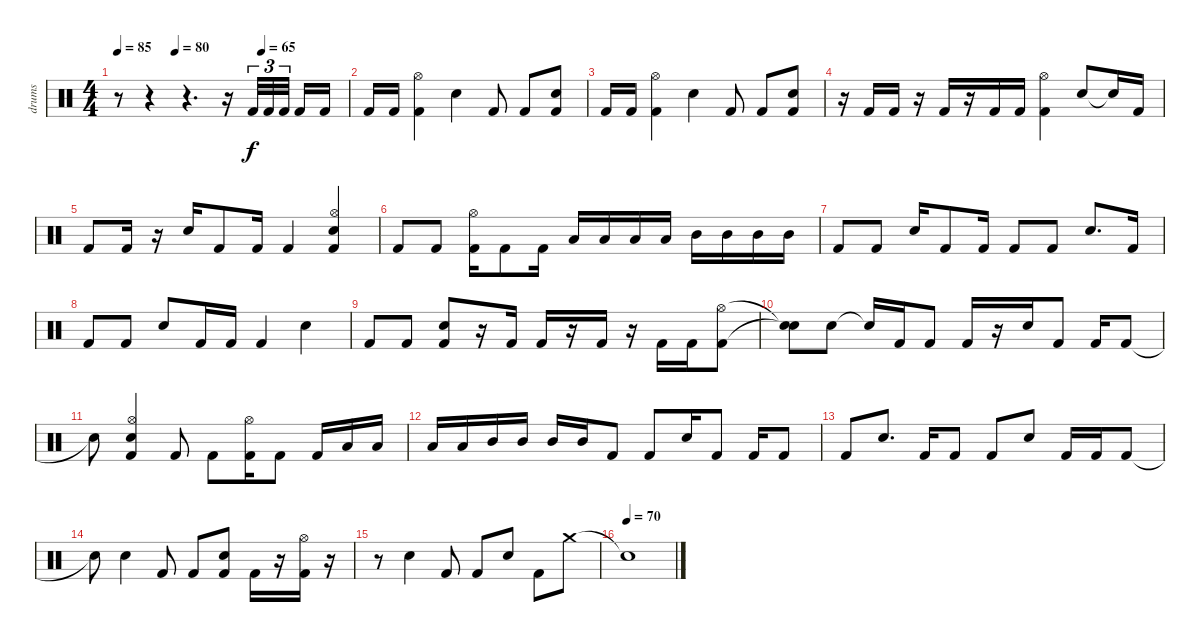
\track ("drums" "drums") {instrument percussion}
\staff {score}
\articulation defaults
\ts (4 4)
\tempo 85
\tempo (80 0.25)
\tempo (65 0.625)
\clef neutral
\ks c
r.8{dy f} r.4 r.4{d} r.16 "Kick (hit) 2".32{tu (3 2)} "Kick (hit) 2".32{tu (3 2)} "Kick (hit) 2".32{tu (3 2) beam splitsecondary} "Kick (hit) 2".16 "Kick (hit) 2".16 |
"Kick (hit) 2".16 "Kick (hit) 2".16 ("Hi-Hat (open)" "Kick (hit) 2").4 "Snare (hit) 2".4 "Kick (hit) 2".8 "Kick (hit) 2".8 ("Snare (hit) 2" "Kick (hit) 2").8 |
"Kick (hit) 2".16 "Kick (hit) 2".16 ("Hi-Hat (open)" "Kick (hit) 2").4 "Snare (hit) 2".4 "Kick (hit) 2".8 "Kick (hit) 2".8 ("Snare (hit) 2" "Kick (hit) 2").8 |
r.16 "Kick (hit) 2".16 "Kick (hit) 2".16 r.16 "Kick (hit) 2".16 r.16 "Kick (hit) 2".16 "Kick (hit) 2".16 ("Hi-Hat (open)" "Kick (hit) 2").4 "Snare (hit) 2".8 "Snare (hit)"{t}.16 "Kick (hit) 2".16 |
"Kick (hit) 2".8 "Kick (hit) 2".16 r.16 "Snare (hit) 2".16 "Kick (hit) 2".8 "Kick (hit) 2".16 "Kick (hit) 2".4 ("Hi-Hat (open)" "Snare (hit) 2" "Kick (hit) 2").4 |
"Kick (hit) 2".8 "Kick (hit) 2".8 ("Hi-Hat (open)" "Kick (hit) 2").16 "Kick (hit) 2".8 "Kick (hit) 2".16 "Low Tom (hit)".16 "Low Tom (hit)".16 "Low Tom (hit)".16 "Low Tom (hit)".16 "Mid Tom (hit)".16 "Mid Tom (hit)".16 "Mid Tom (hit)".16 "Mid Tom (hit)".16 |
"Kick (hit) 2".8 "Kick (hit) 2".8 "Snare (hit) 2".16 "Kick (hit) 2".8 "Kick (hit) 2".16 "Kick (hit) 2".8 "Kick (hit) 2".8 "Snare (hit) 2".8{d} "Kick (hit) 2".16 |
"Kick (hit) 2".8 "Kick (hit) 2".8 "Snare (hit) 2".8 "Kick (hit) 2".16 "Kick (hit) 2".16 "Kick (hit) 2".4 "Snare (hit) 2".4 |
"Kick (hit) 2".8 "Kick (hit) 2".8 ("Snare (hit) 2" "Kick (hit) 2").8 r.16 "Kick (hit) 2".16 "Kick (hit) 2".16 r.16 "Kick (hit) 2".16 r.16 "Kick (hit) 2".16 "Kick (hit) 2".16 ("Hi-Hat (open)" "Kick (hit) 2").8 |
("Snare (hit) 2"{t} "Snare (hit)"{t}).8 "Snare (hit) 2".8 "Snare (hit)"{t}.16 "Kick (hit) 2".16 "Kick (hit) 2".8 "Kick (hit) 2".16 r.16 "Snare (hit) 2".16 "Kick (hit) 2".8 "Kick (hit) 2".16 "Kick (hit) 2".8 |
"Snare (hit)"{t}.8 ("Hi-Hat (open)" "Snare (hit) 2" "Kick (hit) 2").4 "Kick (hit) 2".8 "Kick (hit) 2".8 ("Hi-Hat (open)" "Kick (hit) 2").16 "Kick (hit) 2".8 "Kick (hit) 2".16 "Low Tom (hit)".16 "Low Tom (hit)".16 |
"Low Tom (hit)".16 "Low Tom (hit)".16 "Mid Tom (hit)".16 "Mid Tom (hit)".16 "Mid Tom (hit)".16 "Mid Tom (hit)".16 "Kick (hit) 2".8 "Kick (hit) 2".8 "Snare (hit) 2".16 "Kick (hit) 2".8 "Kick (hit) 2".16 "Kick (hit) 2".8 |
"Kick (hit) 2".8 "Snare (hit) 2".8{d} "Kick (hit) 2".16 "Kick (hit) 2".8 "Kick (hit) 2".8 "Snare (hit) 2".8 "Kick (hit) 2".16 "Kick (hit) 2".16 "Kick (hit) 2".8 |
"Snare (hit)"{t}.8 "Snare (hit) 2".4 "Kick (hit) 2".8 "Kick (hit) 2".8 ("Snare (hit) 2" "Kick (hit) 2").8 "Kick (hit) 2".16 r.16 ("Hi-Hat (open)" "Kick (hit) 2").16 r.16 |
r.8 "Snare (hit) 2".4 "Kick (hit) 2".8 "Kick (hit) 2".8 "Snare (hit) 2".8 "Kick (hit) 2".8 "Crash medium (hit)".8 |
\tempo (70)
"Snare (hit)"{t}.1
